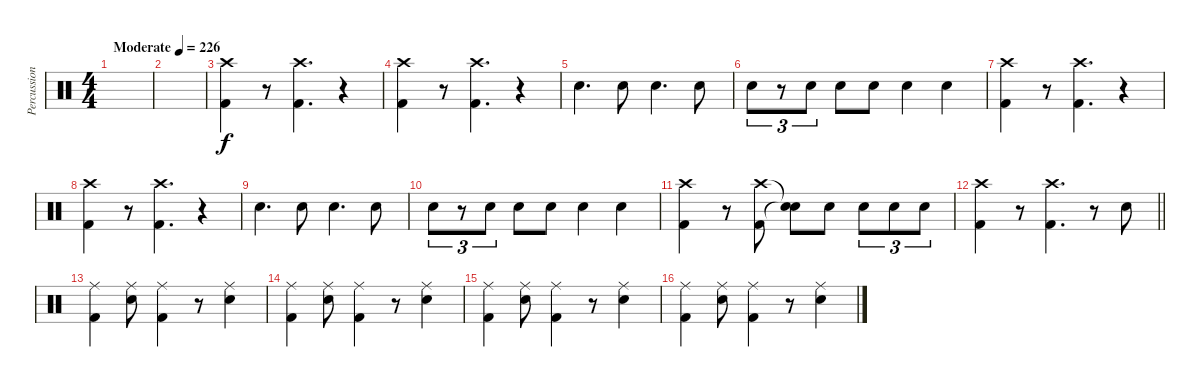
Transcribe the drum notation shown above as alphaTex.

\track ("Percussion" "Percussion") {instrument percussion}
\staff {score}
\articulation defaults
\ts (4 4)
\tempo (226 "Moderate")
\clef neutral
\ks c
|
|
("Crash high (hit)" "Kick (hit) 2").4 r.8 ("Crash high (hit)" "Kick (hit) 2").4{d} r.4 |
("Crash high (hit)" "Kick (hit) 2").4 r.8 ("Crash high (hit)" "Kick (hit) 2").4{d} r.4 |
"Snare (hit) 2".4{d} "Snare (hit) 2".8 "Snare (hit) 2".4{d} "Snare (hit) 2".8 |
"Snare (hit) 2".8{tu (3 2)} r.8{tu (3 2)} "Snare (hit) 2".8{tu (3 2)} "Snare (hit) 2".8 "Snare (hit) 2".8 "Snare (hit) 2".4 "Snare (hit) 2".4 |
("Crash high (hit)" "Kick (hit) 2").4 r.8 ("Crash high (hit)" "Kick (hit) 2").4{d} r.4 |
("Crash high (hit)" "Kick (hit) 2").4 r.8 ("Crash high (hit)" "Kick (hit) 2").4{d} r.4 |
"Snare (hit) 2".4{d} "Snare (hit) 2".8 "Snare (hit) 2".4{d} "Snare (hit) 2".8 |
"Snare (hit) 2".8{tu (3 2)} r.8{tu (3 2)} "Snare (hit) 2".8{tu (3 2)} "Snare (hit) 2".8 "Snare (hit) 2".8 "Snare (hit) 2".4 "Snare (hit) 2".4 |
("Crash high (hit)" "Kick (hit) 2").4 r.8 ("Crash high (hit)" "Kick (hit) 2").8 ("Snare (hit)"{t} "Snare (hit)"{t}).8 "Snare (hit) 2".8 "Snare (hit) 2".8{tu (3 2)} "Snare (hit) 2".8{tu (3 2)} "Snare (hit) 2".8{tu (3 2)} |
\barLineRight lightlight
("Crash high (hit)" "Kick (hit) 2").4 r.8 ("Crash high (hit)" "Kick (hit) 2").4{d} r.8 "Snare (hit) 2".8 |
("Ride (middle)" "Kick (hit) 2").4 ("Ride (middle)" "Snare (hit) 2").8 ("Ride (middle)" "Kick (hit) 2").4 r.8 ("Ride (middle)" "Snare (hit) 2").4 |
("Ride (middle)" "Kick (hit) 2").4 ("Ride (middle)" "Snare (hit) 2").8 ("Ride (middle)" "Kick (hit) 2").4 r.8 ("Ride (middle)" "Snare (hit) 2").4 |
("Ride (middle)" "Kick (hit) 2").4 ("Ride (middle)" "Snare (hit) 2").8 ("Ride (middle)" "Kick (hit) 2").4 r.8 ("Ride (middle)" "Snare (hit) 2").4 |
("Ride (middle)" "Kick (hit) 2").4 ("Ride (middle)" "Snare (hit) 2").8 ("Ride (middle)" "Kick (hit) 2").4 r.8 ("Ride (middle)" "Snare (hit) 2").4
